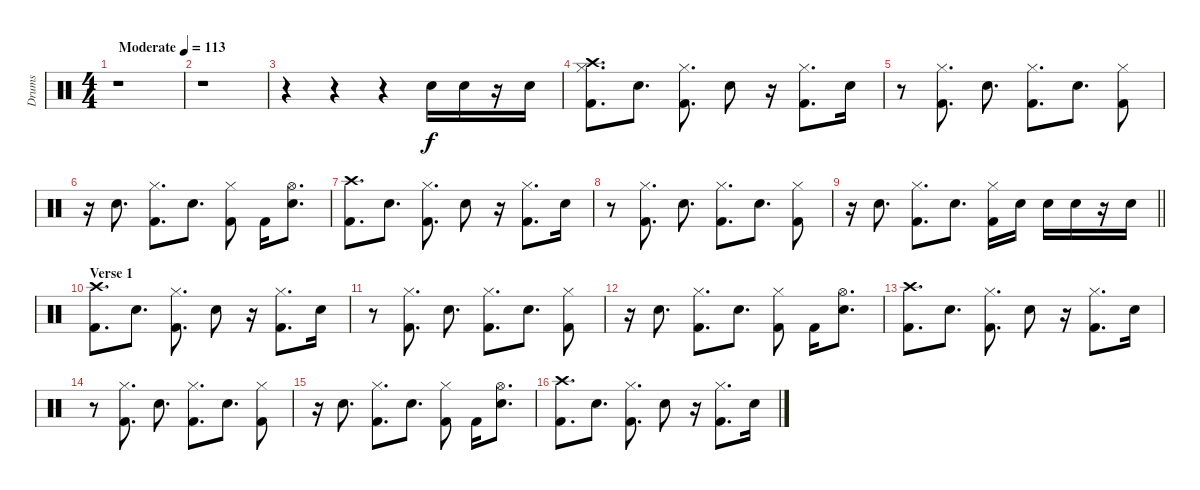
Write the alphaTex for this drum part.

\track ("Drums" "Drums") {instrument percussion}
\staff {score}
\articulation defaults
\ts (4 4)
\tempo (113 "Moderate")
\clef neutral
\ks c
r.1{dy f} |
r.1 |
r.4 r.4 r.4 "Electric Snare (hit)".16 "Electric Snare (hit)".16 r.16 "Electric Snare (hit)".16 |
("Crash high (hit)" "Hi-Hat (closed)" "Kick (hit) 2").8{d} "Electric Snare (hit)".8{d} ("Hi-Hat (closed)" "Kick (hit) 2").8{d} "Electric Snare (hit)".8 r.16 ("Hi-Hat (closed)" "Kick (hit) 2").8{d} "Electric Snare (hit)".16 |
r.8 ("Hi-Hat (closed)" "Kick (hit) 2").8{d} "Electric Snare (hit)".8{d} ("Hi-Hat (closed)" "Kick (hit) 2").8{d} "Electric Snare (hit)".8{d} ("Hi-Hat (closed)" "Kick (hit) 2").8 |
r.16 "Electric Snare (hit)".8{d} ("Hi-Hat (closed)" "Kick (hit) 2").8{d} "Electric Snare (hit)".8{d} ("Hi-Hat (closed)" "Kick (hit) 2").8 "Kick (hit) 2".16 ("Hi-Hat (open)" "Electric Snare (hit)").8{d} |
("Crash high (hit)" "Kick (hit) 2").8{d} "Electric Snare (hit)".8{d} ("Hi-Hat (closed)" "Kick (hit) 2").8{d} "Electric Snare (hit)".8 r.16 ("Hi-Hat (closed)" "Kick (hit) 2").8{d} "Electric Snare (hit)".16 |
r.8 ("Hi-Hat (closed)" "Kick (hit) 2").8{d} "Electric Snare (hit)".8{d} ("Hi-Hat (closed)" "Kick (hit) 2").8{d} "Electric Snare (hit)".8{d} ("Hi-Hat (closed)" "Kick (hit) 2").8 |
\barLineRight lightlight
r.16 "Electric Snare (hit)".8{d} ("Hi-Hat (closed)" "Kick (hit) 2").8{d} "Electric Snare (hit)".8{d} ("Hi-Hat (closed)" "Kick (hit) 2").16 "Electric Snare (hit)".16 "Electric Snare (hit)".16 "Electric Snare (hit)".16 r.16 "Electric Snare (hit)".16 |
\section ("" "Verse 1")
("Crash high (hit)" "Kick (hit) 2").8{d} "Electric Snare (hit)".8{d} ("Hi-Hat (closed)" "Kick (hit) 2").8{d} "Electric Snare (hit)".8 r.16 ("Hi-Hat (closed)" "Kick (hit) 2").8{d} "Electric Snare (hit)".16 |
r.8 ("Hi-Hat (closed)" "Kick (hit) 2").8{d} "Electric Snare (hit)".8{d} ("Hi-Hat (closed)" "Kick (hit) 2").8{d} "Electric Snare (hit)".8{d} ("Hi-Hat (closed)" "Kick (hit) 2").8 |
r.16 "Electric Snare (hit)".8{d} ("Hi-Hat (closed)" "Kick (hit) 2").8{d} "Electric Snare (hit)".8{d} ("Hi-Hat (closed)" "Kick (hit) 2").8 "Kick (hit) 2".16 ("Hi-Hat (open)" "Electric Snare (hit)").8{d} |
("Crash high (hit)" "Kick (hit) 2").8{d} "Electric Snare (hit)".8{d} ("Hi-Hat (closed)" "Kick (hit) 2").8{d} "Electric Snare (hit)".8 r.16 ("Hi-Hat (closed)" "Kick (hit) 2").8{d} "Electric Snare (hit)".16 |
r.8 ("Hi-Hat (closed)" "Kick (hit) 2").8{d} "Electric Snare (hit)".8{d} ("Hi-Hat (closed)" "Kick (hit) 2").8{d} "Electric Snare (hit)".8{d} ("Hi-Hat (closed)" "Kick (hit) 2").8 |
r.16 "Electric Snare (hit)".8{d} ("Hi-Hat (closed)" "Kick (hit) 2").8{d} "Electric Snare (hit)".8{d} ("Hi-Hat (closed)" "Kick (hit) 2").8 "Kick (hit) 2".16 ("Hi-Hat (open)" "Electric Snare (hit)").8{d} |
("Crash high (hit)" "Kick (hit) 2").8{d} "Electric Snare (hit)".8{d} ("Hi-Hat (closed)" "Kick (hit) 2").8{d} "Electric Snare (hit)".8 r.16 ("Hi-Hat (closed)" "Kick (hit) 2").8{d} "Electric Snare (hit)".16
